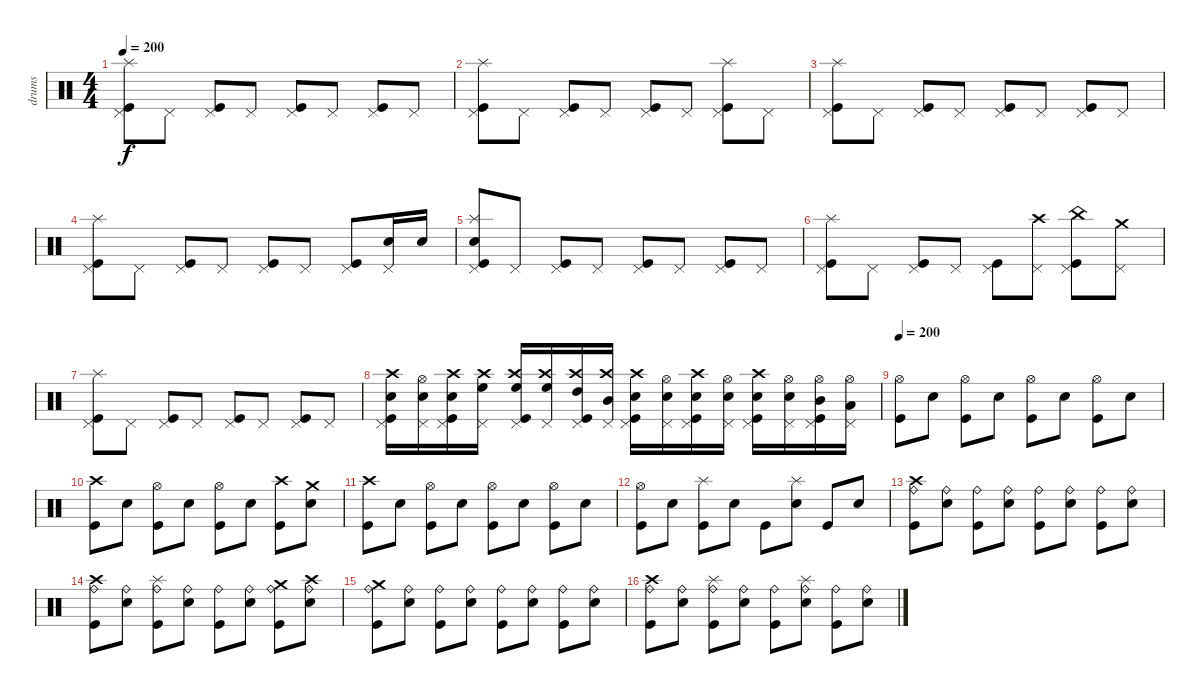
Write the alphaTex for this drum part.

\track ("drums" "drums") {instrument percussion}
\staff {score}
\articulation defaults
\ts (4 4)
\tempo 200
\tempo 180
\tempo 200
\clef neutral
\ks c
("Pedal Hi-Hat (hit)" "Kick (hit)" "Splash (hit)").8{dy f} "Pedal Hi-Hat (hit)".8 ("Pedal Hi-Hat (hit)" "Kick (hit)").8 "Pedal Hi-Hat (hit)".8 ("Pedal Hi-Hat (hit)" "Kick (hit)").8 "Pedal Hi-Hat (hit)".8 ("Pedal Hi-Hat (hit)" "Kick (hit)").8 "Pedal Hi-Hat (hit)".8 |
("Pedal Hi-Hat (hit)" "Kick (hit)" "Splash (hit)").8 "Pedal Hi-Hat (hit)".8 ("Pedal Hi-Hat (hit)" "Kick (hit)").8 "Pedal Hi-Hat (hit)".8 ("Pedal Hi-Hat (hit)" "Kick (hit)").8 "Pedal Hi-Hat (hit)".8 ("Pedal Hi-Hat (hit)" "Kick (hit)" "Splash (hit)").8 "Pedal Hi-Hat (hit)".8 |
("Pedal Hi-Hat (hit)" "Kick (hit)" "Splash (hit)").8 "Pedal Hi-Hat (hit)".8 ("Pedal Hi-Hat (hit)" "Kick (hit)").8 "Pedal Hi-Hat (hit)".8 ("Pedal Hi-Hat (hit)" "Kick (hit)").8 "Pedal Hi-Hat (hit)".8 ("Pedal Hi-Hat (hit)" "Kick (hit)").8 "Pedal Hi-Hat (hit)".8 |
("Pedal Hi-Hat (hit)" "Kick (hit)" "Splash (hit)").8 "Pedal Hi-Hat (hit)".8 ("Pedal Hi-Hat (hit)" "Kick (hit)").8 "Pedal Hi-Hat (hit)".8 ("Pedal Hi-Hat (hit)" "Kick (hit)").8 "Pedal Hi-Hat (hit)".8 ("Pedal Hi-Hat (hit)" "Kick (hit)").8 ("Pedal Hi-Hat (hit)" "Electric Snare (hit)").16 "Electric Snare (hit)".16 |
("Pedal Hi-Hat (hit)" "Kick (hit)" "Splash (hit)" "Electric Snare (hit)").8 "Pedal Hi-Hat (hit)".8 ("Pedal Hi-Hat (hit)" "Kick (hit)").8 "Pedal Hi-Hat (hit)".8 ("Pedal Hi-Hat (hit)" "Kick (hit)").8 "Pedal Hi-Hat (hit)".8 ("Pedal Hi-Hat (hit)" "Kick (hit)").8 "Pedal Hi-Hat (hit)".8 |
("Pedal Hi-Hat (hit)" "Kick (hit)" "Splash (hit)").8 "Pedal Hi-Hat (hit)".8 ("Pedal Hi-Hat (hit)" "Kick (hit)").8 "Pedal Hi-Hat (hit)".8 ("Pedal Hi-Hat (hit)" "Kick (hit)").8 ("Pedal Hi-Hat (hit)" "Crash high (hit)").8 ("Pedal Hi-Hat (hit)" "Kick (hit)" "China (hit)").8 ("Pedal Hi-Hat (hit)" "Crash medium (hit)").8 |
("Pedal Hi-Hat (hit)" "Kick (hit)" "Splash (hit)").8 "Pedal Hi-Hat (hit)".8 ("Pedal Hi-Hat (hit)" "Kick (hit)").8 "Pedal Hi-Hat (hit)".8 ("Pedal Hi-Hat (hit)" "Kick (hit)").8 "Pedal Hi-Hat (hit)".8 ("Pedal Hi-Hat (hit)" "Kick (hit)").8 "Pedal Hi-Hat (hit)".8 |
("Crash high (hit)" "Pedal Hi-Hat (hit)" "Kick (hit)" "Electric Snare (hit)").16 ("Hi-Hat (open)" "Pedal Hi-Hat (hit)" "Electric Snare (hit)").16 ("Crash high (hit)" "Pedal Hi-Hat (hit)" "Kick (hit)" "Electric Snare (hit)").16 ("Crash high (hit)" "Pedal Hi-Hat (hit)" "High Floor Tom (hit)").16 ("Crash high (hit)" "Pedal Hi-Hat (hit)" "Kick (hit)" "High Floor Tom (hit)").16 ("Crash high (hit)" "Pedal Hi-Hat (hit)" "High Floor Tom (hit)").16 ("Crash high (hit)" "Pedal Hi-Hat (hit)" "Kick (hit)" "High Tom (hit)").16 ("Crash high (hit)" "Pedal Hi-Hat (hit)" "Mid Tom (hit)").16 ("Crash high (hit)" "Pedal Hi-Hat (hit)" "Kick (hit)" "Electric Snare (hit)").16 ("Hi-Hat (open)" "Pedal Hi-Hat (hit)" "Electric Snare (hit)").16 ("Crash high (hit)" "Pedal Hi-Hat (hit)" "Kick (hit)" "Electric Snare (hit)").16 ("Hi-Hat (open)" "Pedal Hi-Hat (hit)" "Electric Snare (hit)").16 ("Crash high (hit)" "Pedal Hi-Hat (hit)" "Kick (hit)" "Electric Snare (hit)").16 ("Hi-Hat (open)" "Pedal Hi-Hat (hit)" "Electric Snare (hit)").16 ("Hi-Hat (open)" "Pedal Hi-Hat (hit)" "Kick (hit)" "Mid Tom (hit)").16 ("Hi-Hat (open)" "Pedal Hi-Hat (hit)" "Low Tom (hit)").16 |
\tempo 200
("Hi-Hat (open)" "Kick (hit)").8 "Electric Snare (hit)".8 ("Hi-Hat (open)" "Kick (hit)").8 "Electric Snare (hit)".8 ("Hi-Hat (open)" "Kick (hit)").8 "Electric Snare (hit)".8 ("Hi-Hat (open)" "Kick (hit)").8 "Electric Snare (hit)".8 |
("Crash high (hit)" "Kick (hit)").8 "Electric Snare (hit)".8 ("Kick (hit)" "Hi-Hat (open)").8 "Electric Snare (hit)".8 ("Kick (hit)" "Hi-Hat (open)").8 "Electric Snare (hit)".8 ("Kick (hit)" "Crash high (hit)").8 ("Electric Snare (hit)" "Crash medium (hit)").8 |
("Kick (hit)" "Crash high (hit)").8 "Electric Snare (hit)".8 ("Kick (hit)" "Hi-Hat (open)").8 "Electric Snare (hit)".8 ("Kick (hit)" "Hi-Hat (open)").8 "Electric Snare (hit)".8 ("Kick (hit)" "Hi-Hat (open)").8 "Electric Snare (hit)".8 |
("Kick (hit)" "Hi-Hat (open)").8 "Electric Snare (hit)".8 ("Kick (hit)" "Splash (hit)").8 "Electric Snare (hit)".8 "Kick (hit)".8 ("Electric Snare (hit)" "Splash (hit)").8 "Kick (hit)".8 "Electric Snare (hit)".8 |
("Ride (bell)" "Kick (hit)" "Crash high (hit)").8 ("Ride (bell)" "Electric Snare (hit)").8 ("Ride (bell)" "Kick (hit)").8 ("Ride (bell)" "Electric Snare (hit)").8 ("Ride (bell)" "Kick (hit)").8 ("Ride (bell)" "Electric Snare (hit)").8 ("Ride (bell)" "Kick (hit)").8 ("Ride (bell)" "Electric Snare (hit)").8 |
("Ride (bell)" "Kick (hit)" "Crash high (hit)").8 ("Ride (bell)" "Electric Snare (hit)").8 ("Ride (bell)" "Kick (hit)" "Splash (hit)").8 ("Ride (bell)" "Electric Snare (hit)").8 ("Ride (bell)" "Kick (hit)").8 ("Ride (bell)" "Electric Snare (hit)").8 ("Ride (bell)" "Kick (hit)" "Crash medium (hit)").8 ("Ride (bell)" "Electric Snare (hit)" "Crash high (hit)").8 |
("Ride (bell)" "Kick (hit)" "Crash medium (hit)").8 ("Ride (bell)" "Electric Snare (hit)").8 ("Ride (bell)" "Kick (hit)").8 ("Ride (bell)" "Electric Snare (hit)").8 ("Ride (bell)" "Kick (hit)").8 ("Ride (bell)" "Electric Snare (hit)").8 ("Ride (bell)" "Kick (hit)").8 ("Ride (bell)" "Electric Snare (hit)").8 |
("Ride (bell)" "Kick (hit)" "Crash high (hit)").8 ("Ride (bell)" "Electric Snare (hit)").8 ("Ride (bell)" "Kick (hit)" "Splash (hit)").8 ("Ride (bell)" "Electric Snare (hit)").8 ("Ride (bell)" "Kick (hit)").8 ("Ride (bell)" "Electric Snare (hit)" "Splash (hit)").8 ("Ride (bell)" "Kick (hit)").8 ("Ride (bell)" "Electric Snare (hit)").8
